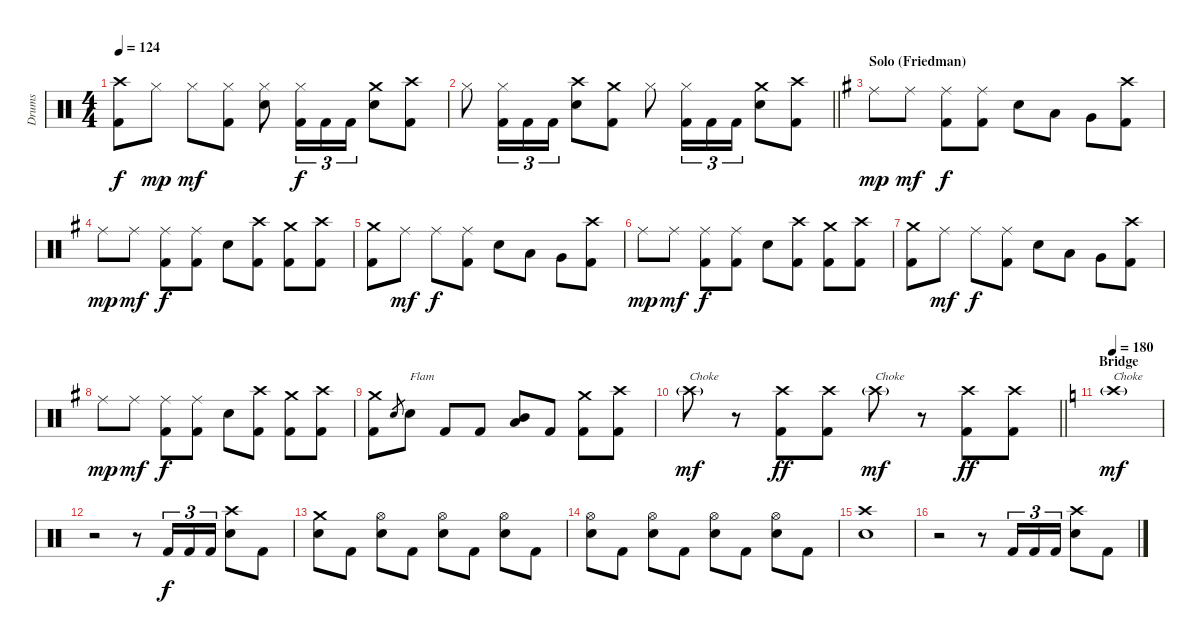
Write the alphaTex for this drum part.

\track ("Drums" "Drums") {instrument percussion}
\staff {score}
\articulation defaults
\ts (4 4)
\tempo 124
\clef neutral
\ks c
("Crash high (hit)" "Kick (hit) 2").8{dy f} "Hi-Hat (closed)".8{dy mp} "Hi-Hat (closed)".8{dy mf} ("Hi-Hat (closed)" "Kick (hit) 2").8 ("Hi-Hat (closed)" "Snare (hit) 2").8 ("Hi-Hat (closed)" "Kick (hit) 2").16{tu (3 2) dy f} "Kick (hit) 2".16{tu (3 2)} "Kick (hit) 2".16{tu (3 2)} ("Crash medium (hit)" "Snare (hit) 2").8 ("Crash high (hit)" "Kick (hit) 2").8 |
\barLineRight lightlight "Hi-Hat (closed)".8
("Hi-Hat (closed)" "Kick (hit) 2").16{tu (3 2)} "Kick (hit) 2".16{tu (3 2)} "Kick (hit) 2".16{tu (3 2)} ("Crash high (hit)" "Snare (hit) 2").8 ("Crash medium (hit)" "Kick (hit) 2").8 "Hi-Hat (closed)".8 ("Hi-Hat (closed)" "Kick (hit) 2").16{tu (3 2)} "Kick (hit) 2".16{tu (3 2)} "Kick (hit) 2".16{tu (3 2)} ("Crash medium (hit)" "Snare (hit) 2").8 ("Crash high (hit)" "Kick (hit) 2").8 |
\section ("" "Solo (Friedman)")
\ks g "Ride (middle)".8{dy mp} "Ride (middle)".8{dy mf}
("Ride (middle)" "Kick (hit) 2").8{dy f} ("Ride (middle)" "Kick (hit) 2").8 "Snare (hit) 2".8 "Low Tom (hit)".8 "Very Low Tom (hit)".8 ("Crash high (hit)" "Kick (hit) 2").8 |
"Ride (middle)".8{dy mp} "Ride (middle)".8{dy mf} ("Ride (middle)" "Kick (hit) 2").8{dy f} ("Ride (middle)" "Kick (hit) 2").8 "Snare (hit) 2".8 ("Crash high (hit)" "Kick (hit) 2").8 ("Crash medium (hit)" "Kick (hit) 2").8 ("Crash high (hit)" "Kick (hit) 2").8 |
("Crash medium (hit)" "Kick (hit) 2").8 "Ride (middle)".8{dy mf} "Ride (middle)".8{dy f} ("Ride (middle)" "Kick (hit) 2").8 "Snare (hit) 2".8 "Low Tom (hit)".8 "Very Low Tom (hit)".8 ("Crash high (hit)" "Kick (hit) 2").8 |
"Ride (middle)".8{dy mp} "Ride (middle)".8{dy mf} ("Ride (middle)" "Kick (hit) 2").8{dy f} ("Ride (middle)" "Kick (hit) 2").8 "Snare (hit) 2".8 ("Crash high (hit)" "Kick (hit) 2").8 ("Crash medium (hit)" "Kick (hit) 2").8 ("Crash high (hit)" "Kick (hit) 2").8 |
("Crash medium (hit)" "Kick (hit) 2").8 "Ride (middle)".8{dy mf} "Ride (middle)".8{dy f} ("Ride (middle)" "Kick (hit) 2").8 "Snare (hit) 2".8 "Low Tom (hit)".8 "Very Low Tom (hit)".8 ("Crash high (hit)" "Kick (hit) 2").8 |
"Ride (middle)".8{dy mp} "Ride (middle)".8{dy mf} ("Ride (middle)" "Kick (hit) 2").8{dy f} ("Ride (middle)" "Kick (hit) 2").8 "Snare (hit) 2".8 ("Crash high (hit)" "Kick (hit) 2").8 ("Crash medium (hit)" "Kick (hit) 2").8 ("Crash high (hit)" "Kick (hit) 2").8 |
("Crash medium (hit)" "Kick (hit) 2").8 "Snare (hit) 2".8{gr} "Snare (hit) 2".8{txt "Flam"} "Kick (hit) 2".8 "Kick (hit) 2".8 ("Mid Tom (hit)" "Low Tom (hit)").8 "Kick (hit) 2".8 ("Crash medium (hit)" "Kick (hit) 2").8 ("Crash high (hit)" "Kick (hit) 2").8 |
\barLineRight lightlight "Crash high (hit)"{g}.8{txt "Choke" dy mf volume 0}
r.8 ("Crash high (hit)" "Kick (hit) 2").8{dy ff volume 16} ("Crash high (hit)" "Kick (hit) 2").8 "Crash high (hit)"{g}.8{txt "Choke" dy mf volume 0} r.8 ("Crash high (hit)" "Kick (hit) 2").8{dy ff volume 16} ("Crash high (hit)" "Kick (hit) 2").8 |
\section ("" "Bridge")
\tempo 180
\ks c "Crash high (hit)"{g}.1{txt "Choke" dy mf volume 0}
|
r.2 r.8 "Kick (hit) 2".16{tu (3 2) dy f volume 16} "Kick (hit) 2".16{tu (3 2)} "Kick (hit) 2".16{tu (3 2)} ("Crash high (hit)" "Snare (hit) 2").8 "Kick (hit) 2".8 |
("Crash medium (hit)" "Snare (hit) 2").8 "Kick (hit) 2".8 ("Hi-Hat (open)" "Snare (hit) 2").8 "Kick (hit) 2".8 ("Hi-Hat (open)" "Snare (hit) 2").8 "Kick (hit) 2".8 ("Hi-Hat (open)" "Snare (hit) 2").8 "Kick (hit) 2".8 |
("Hi-Hat (open)" "Snare (hit) 2").8 "Kick (hit) 2".8 ("Hi-Hat (open)" "Snare (hit) 2").8 "Kick (hit) 2".8 ("Hi-Hat (open)" "Snare (hit) 2").8 "Kick (hit) 2".8 ("Hi-Hat (open)" "Snare (hit) 2").8 "Kick (hit) 2".8 |
("Crash high (hit)" "Snare (hit) 2").1 |
r.2 r.8 "Kick (hit) 2".16{tu (3 2)} "Kick (hit) 2".16{tu (3 2)} "Kick (hit) 2".16{tu (3 2)} ("Crash high (hit)" "Snare (hit) 2").8 "Kick (hit) 2".8
